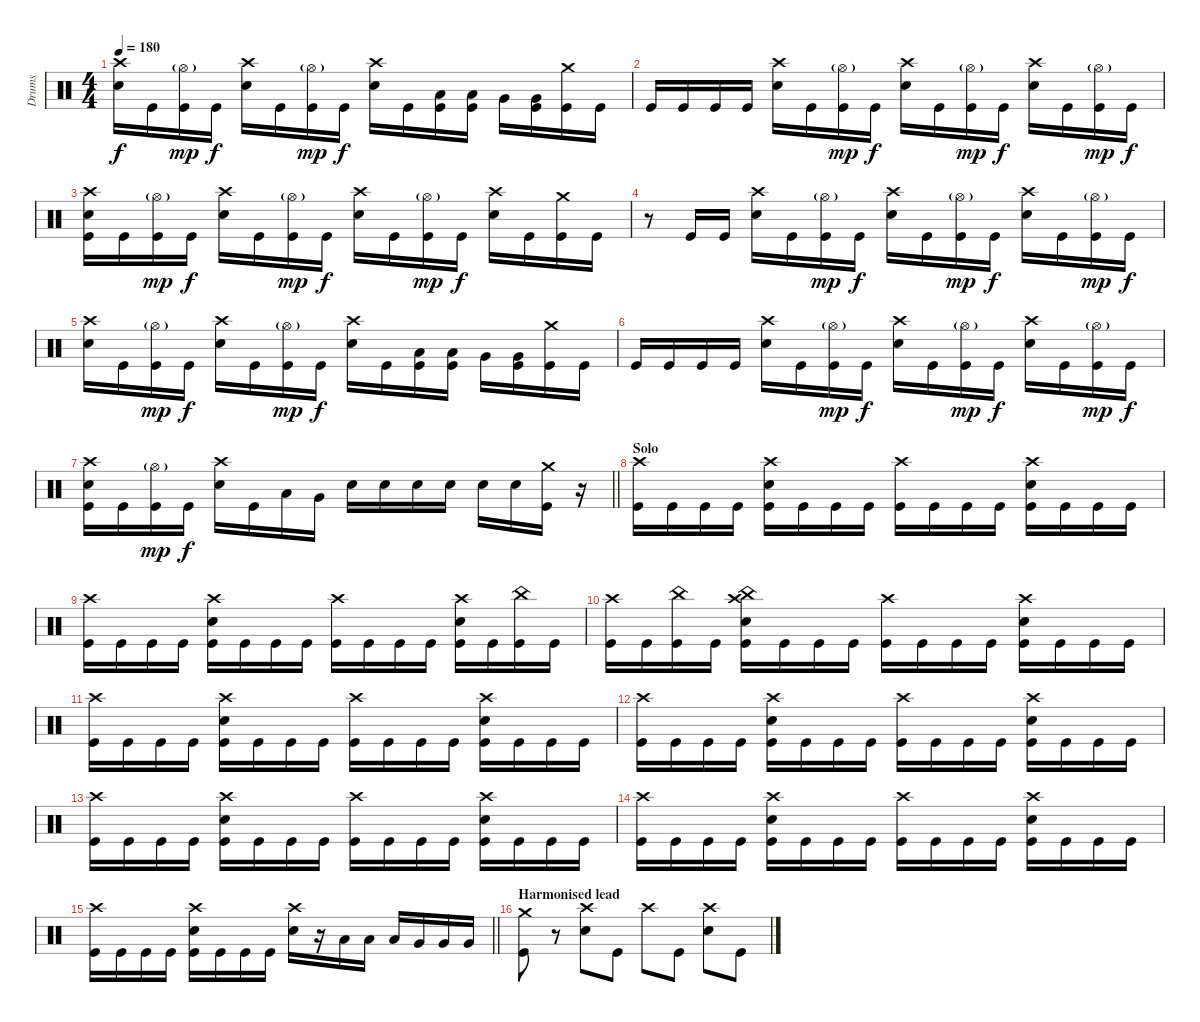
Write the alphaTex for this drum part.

\track ("Drums" "Drums") {instrument percussion}
\staff {score}
\articulation defaults
\ts (4 4)
\tempo 180
\clef neutral
\ks c
("Crash high (hit)" "Electric Snare (hit)").16{dy f} "Kick (hit)".16 ("Hi-Hat (open)"{g} "Kick (hit)").16{dy mp} "Kick (hit)".16{dy f} ("Crash high (hit)" "Electric Snare (hit)").16 "Kick (hit)".16 ("Hi-Hat (open)"{g} "Kick (hit)").16{dy mp} "Kick (hit)".16{dy f} ("Crash high (hit)" "Electric Snare (hit)").16 "Kick (hit)".16 ("Low Tom (hit)" "Kick (hit)").16 ("Low Tom (hit)" "Kick (hit)").16 "Very Low Tom (hit)".16 ("Very Low Tom (hit)" "Kick (hit)").16 ("Crash medium (hit)" "Kick (hit)").16 "Kick (hit)".16 |
"Kick (hit)".16 "Kick (hit)".16 "Kick (hit)".16 "Kick (hit)".16 ("Crash high (hit)" "Electric Snare (hit)").16 "Kick (hit)".16 ("Hi-Hat (open)"{g} "Kick (hit)").16{dy mp} "Kick (hit)".16{dy f} ("Crash high (hit)" "Electric Snare (hit)").16 "Kick (hit)".16 ("Hi-Hat (open)"{g} "Kick (hit)").16{dy mp} "Kick (hit)".16{dy f} ("Crash high (hit)" "Electric Snare (hit)").16 "Kick (hit)".16 ("Hi-Hat (open)"{g} "Kick (hit)").16{dy mp} "Kick (hit)".16{dy f} |
("Crash high (hit)" "Electric Snare (hit)" "Kick (hit)").16 "Kick (hit)".16 ("Hi-Hat (open)"{g} "Kick (hit)").16{dy mp} "Kick (hit)".16{dy f} ("Crash high (hit)" "Electric Snare (hit)").16 "Kick (hit)".16 ("Hi-Hat (open)"{g} "Kick (hit)").16{dy mp} "Kick (hit)".16{dy f} ("Crash high (hit)" "Electric Snare (hit)").16 "Kick (hit)".16 ("Hi-Hat (open)"{g} "Kick (hit)").16{dy mp} "Kick (hit)".16{dy f} ("Crash high (hit)" "Electric Snare (hit)").16 "Kick (hit)".16 ("Crash medium (hit)" "Kick (hit)").16 "Kick (hit)".16 |
r.8 "Kick (hit)".16 "Kick (hit)".16 ("Crash high (hit)" "Electric Snare (hit)").16 "Kick (hit)".16 ("Hi-Hat (open)"{g} "Kick (hit)").16{dy mp} "Kick (hit)".16{dy f} ("Crash high (hit)" "Electric Snare (hit)").16 "Kick (hit)".16 ("Hi-Hat (open)"{g} "Kick (hit)").16{dy mp} "Kick (hit)".16{dy f} ("Crash high (hit)" "Electric Snare (hit)").16 "Kick (hit)".16 ("Hi-Hat (open)"{g} "Kick (hit)").16{dy mp} "Kick (hit)".16{dy f} |
("Crash high (hit)" "Electric Snare (hit)").16 "Kick (hit)".16 ("Hi-Hat (open)"{g} "Kick (hit)").16{dy mp} "Kick (hit)".16{dy f} ("Crash high (hit)" "Electric Snare (hit)").16 "Kick (hit)".16 ("Hi-Hat (open)"{g} "Kick (hit)").16{dy mp} "Kick (hit)".16{dy f} ("Crash high (hit)" "Electric Snare (hit)").16 "Kick (hit)".16 ("Low Tom (hit)" "Kick (hit)").16 ("Low Tom (hit)" "Kick (hit)").16 "Very Low Tom (hit)".16 ("Very Low Tom (hit)" "Kick (hit)").16 ("Crash medium (hit)" "Kick (hit)").16 "Kick (hit)".16 |
"Kick (hit)".16 "Kick (hit)".16 "Kick (hit)".16 "Kick (hit)".16 ("Crash high (hit)" "Electric Snare (hit)").16 "Kick (hit)".16 ("Hi-Hat (open)"{g} "Kick (hit)").16{dy mp} "Kick (hit)".16{dy f} ("Crash high (hit)" "Electric Snare (hit)").16 "Kick (hit)".16 ("Hi-Hat (open)"{g} "Kick (hit)").16{dy mp} "Kick (hit)".16{dy f} ("Crash high (hit)" "Electric Snare (hit)").16 "Kick (hit)".16 ("Hi-Hat (open)"{g} "Kick (hit)").16{dy mp} "Kick (hit)".16{dy f} |
\barLineRight lightlight
("Crash high (hit)" "Electric Snare (hit)" "Kick (hit)").16 "Kick (hit)".16 ("Hi-Hat (open)"{g} "Kick (hit)").16{dy mp} "Kick (hit)".16{dy f} ("Crash high (hit)" "Electric Snare (hit)").16 "Kick (hit)".16 "Low Tom (hit)".16 "Very Low Tom (hit)".16 "Electric Snare (hit)".16 "Electric Snare (hit)".16 "Electric Snare (hit)".16 "Electric Snare (hit)".16 "Electric Snare (hit)".16 "Electric Snare (hit)".16 ("Crash medium (hit)" "Kick (hit)").16 r.16 |
\section ("" "Solo")
("Crash high (hit)" "Kick (hit)").16 "Kick (hit)".16 "Kick (hit)".16 "Kick (hit)".16 ("Crash high (hit)" "Electric Snare (hit)" "Kick (hit)").16 "Kick (hit)".16 "Kick (hit)".16 "Kick (hit)".16 ("Crash high (hit)" "Kick (hit)").16 "Kick (hit)".16 "Kick (hit)".16 "Kick (hit)".16 ("Crash high (hit)" "Electric Snare (hit)" "Kick (hit)").16 "Kick (hit)".16 "Kick (hit)".16 "Kick (hit)".16 |
("Crash high (hit)" "Kick (hit)").16 "Kick (hit)".16 "Kick (hit)".16 "Kick (hit)".16 ("Crash high (hit)" "Electric Snare (hit)" "Kick (hit)").16 "Kick (hit)".16 "Kick (hit)".16 "Kick (hit)".16 ("Crash high (hit)" "Kick (hit)").16 "Kick (hit)".16 "Kick (hit)".16 "Kick (hit)".16 ("Crash high (hit)" "Electric Snare (hit)" "Kick (hit)").16 "Kick (hit)".16 ("China (hit)" "Kick (hit)").16 "Kick (hit)".16 |
("Crash high (hit)" "Kick (hit)").16 "Kick (hit)".16 ("China (hit)" "Kick (hit)").16 "Kick (hit)".16 ("China (hit)" "Crash high (hit)" "Electric Snare (hit)" "Kick (hit)").16 "Kick (hit)".16 "Kick (hit)".16 "Kick (hit)".16 ("Crash high (hit)" "Kick (hit)").16 "Kick (hit)".16 "Kick (hit)".16 "Kick (hit)".16 ("Crash high (hit)" "Electric Snare (hit)" "Kick (hit)").16 "Kick (hit)".16 "Kick (hit)".16 "Kick (hit)".16 |
("Crash high (hit)" "Kick (hit)").16 "Kick (hit)".16 "Kick (hit)".16 "Kick (hit)".16 ("Crash high (hit)" "Electric Snare (hit)" "Kick (hit)").16 "Kick (hit)".16 "Kick (hit)".16 "Kick (hit)".16 ("Crash high (hit)" "Kick (hit)").16 "Kick (hit)".16 "Kick (hit)".16 "Kick (hit)".16 ("Crash high (hit)" "Electric Snare (hit)" "Kick (hit)").16 "Kick (hit)".16 "Kick (hit)".16 "Kick (hit)".16 |
("Crash high (hit)" "Kick (hit)").16 "Kick (hit)".16 "Kick (hit)".16 "Kick (hit)".16 ("Crash high (hit)" "Electric Snare (hit)" "Kick (hit)").16 "Kick (hit)".16 "Kick (hit)".16 "Kick (hit)".16 ("Crash high (hit)" "Kick (hit)").16 "Kick (hit)".16 "Kick (hit)".16 "Kick (hit)".16 ("Crash high (hit)" "Electric Snare (hit)" "Kick (hit)").16 "Kick (hit)".16 "Kick (hit)".16 "Kick (hit)".16 |
("Crash high (hit)" "Kick (hit)").16 "Kick (hit)".16 "Kick (hit)".16 "Kick (hit)".16 ("Crash high (hit)" "Electric Snare (hit)" "Kick (hit)").16 "Kick (hit)".16 "Kick (hit)".16 "Kick (hit)".16 ("Crash high (hit)" "Kick (hit)").16 "Kick (hit)".16 "Kick (hit)".16 "Kick (hit)".16 ("Crash high (hit)" "Electric Snare (hit)" "Kick (hit)").16 "Kick (hit)".16 "Kick (hit)".16 "Kick (hit)".16 |
("Crash high (hit)" "Kick (hit)").16 "Kick (hit)".16 "Kick (hit)".16 "Kick (hit)".16 ("Crash high (hit)" "Electric Snare (hit)" "Kick (hit)").16 "Kick (hit)".16 "Kick (hit)".16 "Kick (hit)".16 ("Crash high (hit)" "Kick (hit)").16 "Kick (hit)".16 "Kick (hit)".16 "Kick (hit)".16 ("Crash high (hit)" "Electric Snare (hit)" "Kick (hit)").16 "Kick (hit)".16 "Kick (hit)".16 "Kick (hit)".16 |
\barLineRight lightlight
("Crash high (hit)" "Kick (hit)").16 "Kick (hit)".16 "Kick (hit)".16 "Kick (hit)".16 ("Crash high (hit)" "Electric Snare (hit)" "Kick (hit)").16 "Kick (hit)".16 "Kick (hit)".16 "Kick (hit)".16 ("Crash high (hit)" "Electric Snare (hit)").16 r.16 "Low Tom (hit)".16 "Low Tom (hit)".16 "Low Tom (hit)".16 "Very Low Tom (hit)".16 "Very Low Tom (hit)".16 "Very Low Tom (hit)".16 |
\section ("" "Harmonised lead")
("Crash medium (hit)" "Kick (hit)").8 r.8 ("Crash high (hit)" "Electric Snare (hit)").8 "Kick (hit)".8 "Crash high (hit)".8 "Kick (hit)".8 ("Crash high (hit)" "Electric Snare (hit)").8 "Kick (hit)".8
